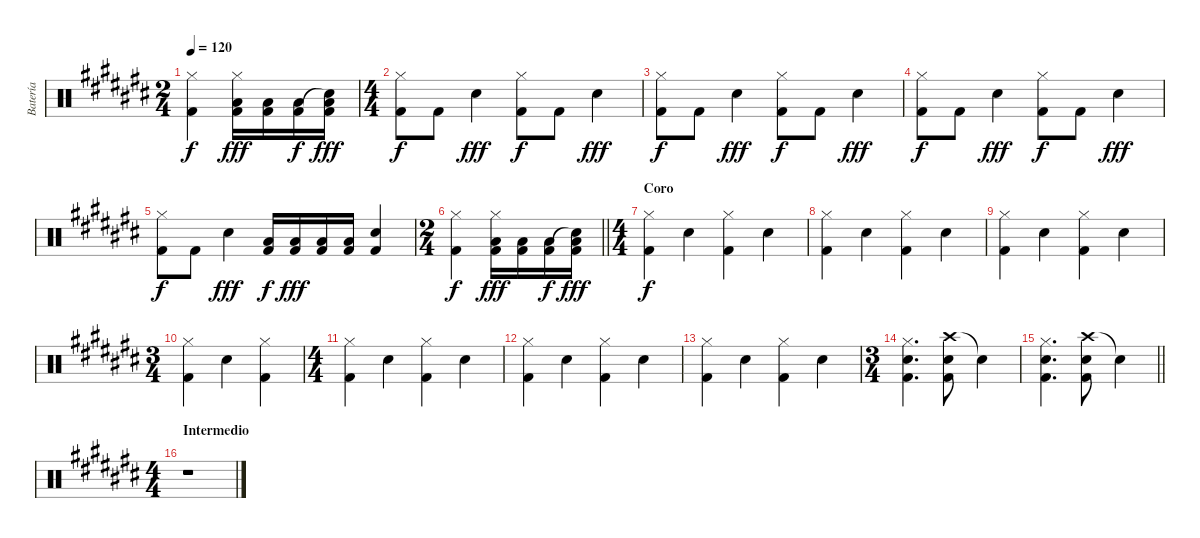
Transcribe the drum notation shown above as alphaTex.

\track ("Batería" "Batería") {instrument percussion}
\staff {score}
\articulation defaults
\ts (2 4)
\tempo 120
\clef neutral
\ks c#
("Hi-Hat (closed)" "Kick (hit) 2").4{dy f} ("Low Tom (hit)" "Hi-Hat (closed)" "Kick (hit) 2").16{dy fff} ("Low Tom (hit)" "Kick (hit) 2").16 ("Low Tom (hit)" "Kick (hit) 2").16{dy f} ("Low Tom (hit)" "Snare (hit)"{t} "Kick (hit) 2").16{dy fff} |
\ts (4 4)
("Hi-Hat (closed)" "Kick (hit) 2").8{dy f} "Kick (hit) 2".8 "Snare (hit) 2".4{dy fff} ("Hi-Hat (closed)" "Kick (hit) 2").8{dy f} "Kick (hit) 2".8 "Snare (hit) 2".4{dy fff} |
("Hi-Hat (closed)" "Kick (hit) 2").8{dy f} "Kick (hit) 2".8 "Snare (hit) 2".4{dy fff} ("Hi-Hat (closed)" "Kick (hit) 2").8{dy f} "Kick (hit) 2".8 "Snare (hit) 2".4{dy fff} |
("Hi-Hat (closed)" "Kick (hit) 2").8{dy f} "Kick (hit) 2".8 "Snare (hit) 2".4{dy fff} ("Hi-Hat (closed)" "Kick (hit) 2").8{dy f} "Kick (hit) 2".8 "Snare (hit) 2".4{dy fff} |
("Hi-Hat (closed)" "Kick (hit) 2").8{dy f} "Kick (hit) 2".8 "Snare (hit) 2".4{dy fff} ("Low Tom (hit)" "Kick (hit) 2").16{dy f} ("Low Tom (hit)" "Kick (hit) 2").16{dy fff} ("Low Tom (hit)" "Kick (hit) 2").16 ("Low Tom (hit)" "Kick (hit) 2").16 ("Snare (hit) 2" "Kick (hit) 2").4 |
\ts (2 4)
\barLineRight lightlight
("Hi-Hat (closed)" "Kick (hit) 2").4{dy f} ("Low Tom (hit)" "Hi-Hat (closed)" "Kick (hit) 2").16{dy fff} ("Low Tom (hit)" "Kick (hit) 2").16 ("Low Tom (hit)" "Kick (hit) 2").16{dy f} ("Low Tom (hit)" "Snare (hit)"{t} "Kick (hit) 2").16{dy fff} |
\ts (4 4)
\section ("" "Coro")
("Hi-Hat (closed)" "Kick (hit) 2").4{dy f} "Electric Snare (hit)".4 ("Hi-Hat (closed)" "Kick (hit) 2").4 "Electric Snare (hit)".4 |
("Hi-Hat (closed)" "Kick (hit) 2").4 "Electric Snare (hit)".4 ("Hi-Hat (closed)" "Kick (hit) 2").4 "Electric Snare (hit)".4 |
("Hi-Hat (closed)" "Kick (hit) 2").4 "Electric Snare (hit)".4 ("Hi-Hat (closed)" "Kick (hit) 2").4 "Electric Snare (hit)".4 |
\ts (3 4)
("Hi-Hat (closed)" "Kick (hit) 2").4 "Electric Snare (hit)".4 ("Hi-Hat (closed)" "Kick (hit) 2").4 |
\ts (4 4)
("Hi-Hat (closed)" "Kick (hit) 2").4 "Electric Snare (hit)".4 ("Hi-Hat (closed)" "Kick (hit) 2").4 "Electric Snare (hit)".4 |
("Hi-Hat (closed)" "Kick (hit) 2").4 "Electric Snare (hit)".4 ("Hi-Hat (closed)" "Kick (hit) 2").4 "Electric Snare (hit)".4 |
("Hi-Hat (closed)" "Kick (hit) 2").4 "Electric Snare (hit)".4 ("Hi-Hat (closed)" "Kick (hit) 2").4 "Electric Snare (hit)".4 |
\ts (3 4)
("Hi-Hat (closed)" "Electric Snare (hit)" "Kick (hit) 2").4{d} ("Crash high (hit)" "Electric Snare (hit)" "Kick (hit) 2").8 "Snare (hit)"{t}.4 |
\barLineRight lightlight
("Hi-Hat (closed)" "Electric Snare (hit)" "Kick (hit) 2").4{d} ("Crash high (hit)" "Electric Snare (hit)" "Kick (hit) 2").8 "Snare (hit)"{t}.4 |
\ts (4 4)
\section ("" "Intermedio")
r.1
